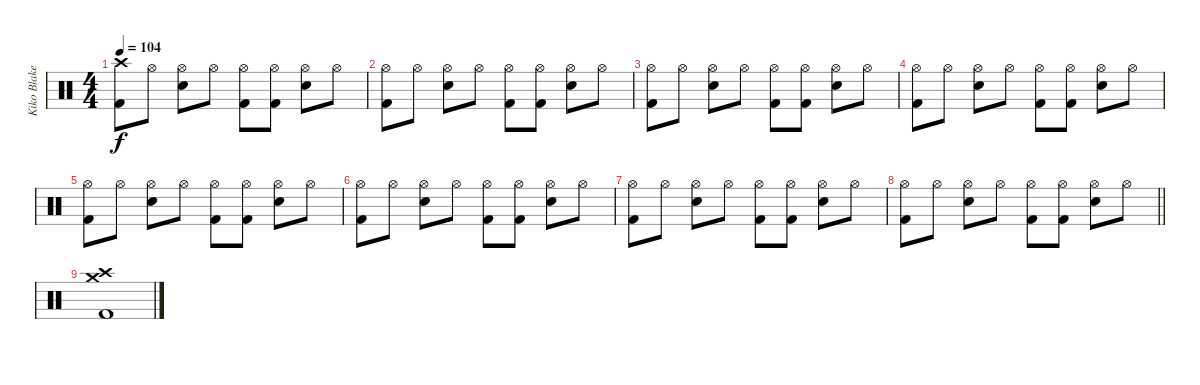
\track ("Kiko Blake" "Kiko Blake") {instrument percussion}
\staff
\articulation defaults
\ts (4 4)
\tempo 104
\clef neutral
\ks c
("Crash high (hit)" "Kick (hit) 2").8{dy f} "Hi-Hat (open)".8 ("Hi-Hat (open)" "Snare (hit) 2").8 "Hi-Hat (open)".8 ("Hi-Hat (open)" "Kick (hit) 2").8 ("Hi-Hat (open)" "Kick (hit) 2").8 ("Hi-Hat (open)" "Snare (hit) 2").8 "Hi-Hat (open)".8 |
("Hi-Hat (open)" "Kick (hit) 2").8 "Hi-Hat (open)".8 ("Hi-Hat (open)" "Snare (hit) 2").8 "Hi-Hat (open)".8 ("Hi-Hat (open)" "Kick (hit) 2").8 ("Hi-Hat (open)" "Kick (hit) 2").8 ("Hi-Hat (open)" "Snare (hit) 2").8 "Hi-Hat (open)".8 |
("Hi-Hat (open)" "Kick (hit) 2").8 "Hi-Hat (open)".8 ("Hi-Hat (open)" "Snare (hit) 2").8 "Hi-Hat (open)".8 ("Hi-Hat (open)" "Kick (hit) 2").8 ("Hi-Hat (open)" "Kick (hit) 2").8 ("Hi-Hat (open)" "Snare (hit) 2").8 "Hi-Hat (open)".8 |
("Hi-Hat (open)" "Kick (hit) 2").8 "Hi-Hat (open)".8 ("Hi-Hat (open)" "Snare (hit) 2").8 "Hi-Hat (open)".8 ("Hi-Hat (open)" "Kick (hit) 2").8 ("Hi-Hat (open)" "Kick (hit) 2").8 ("Hi-Hat (open)" "Snare (hit) 2").8 "Hi-Hat (open)".8 |
("Hi-Hat (open)" "Kick (hit) 2").8 "Hi-Hat (open)".8 ("Hi-Hat (open)" "Snare (hit) 2").8 "Hi-Hat (open)".8 ("Hi-Hat (open)" "Kick (hit) 2").8 ("Hi-Hat (open)" "Kick (hit) 2").8 ("Hi-Hat (open)" "Snare (hit) 2").8 "Hi-Hat (open)".8 |
("Hi-Hat (open)" "Kick (hit) 2").8 "Hi-Hat (open)".8 ("Hi-Hat (open)" "Snare (hit) 2").8 "Hi-Hat (open)".8 ("Hi-Hat (open)" "Kick (hit) 2").8 ("Hi-Hat (open)" "Kick (hit) 2").8 ("Hi-Hat (open)" "Snare (hit) 2").8 "Hi-Hat (open)".8 |
("Hi-Hat (open)" "Kick (hit) 2").8 "Hi-Hat (open)".8 ("Hi-Hat (open)" "Snare (hit) 2").8 "Hi-Hat (open)".8 ("Hi-Hat (open)" "Kick (hit) 2").8 ("Hi-Hat (open)" "Kick (hit) 2").8 ("Hi-Hat (open)" "Snare (hit) 2").8 "Hi-Hat (open)".8 |
\barLineRight lightlight
("Hi-Hat (open)" "Kick (hit) 2").8 "Hi-Hat (open)".8 ("Hi-Hat (open)" "Snare (hit) 2").8 "Hi-Hat (open)".8 ("Hi-Hat (open)" "Kick (hit) 2").8 ("Hi-Hat (open)" "Kick (hit) 2").8 ("Hi-Hat (open)" "Snare (hit) 2").8 "Hi-Hat (open)".8 |
("Crash medium (hit)" "Crash high (hit)" "Kick (hit) 2").1
